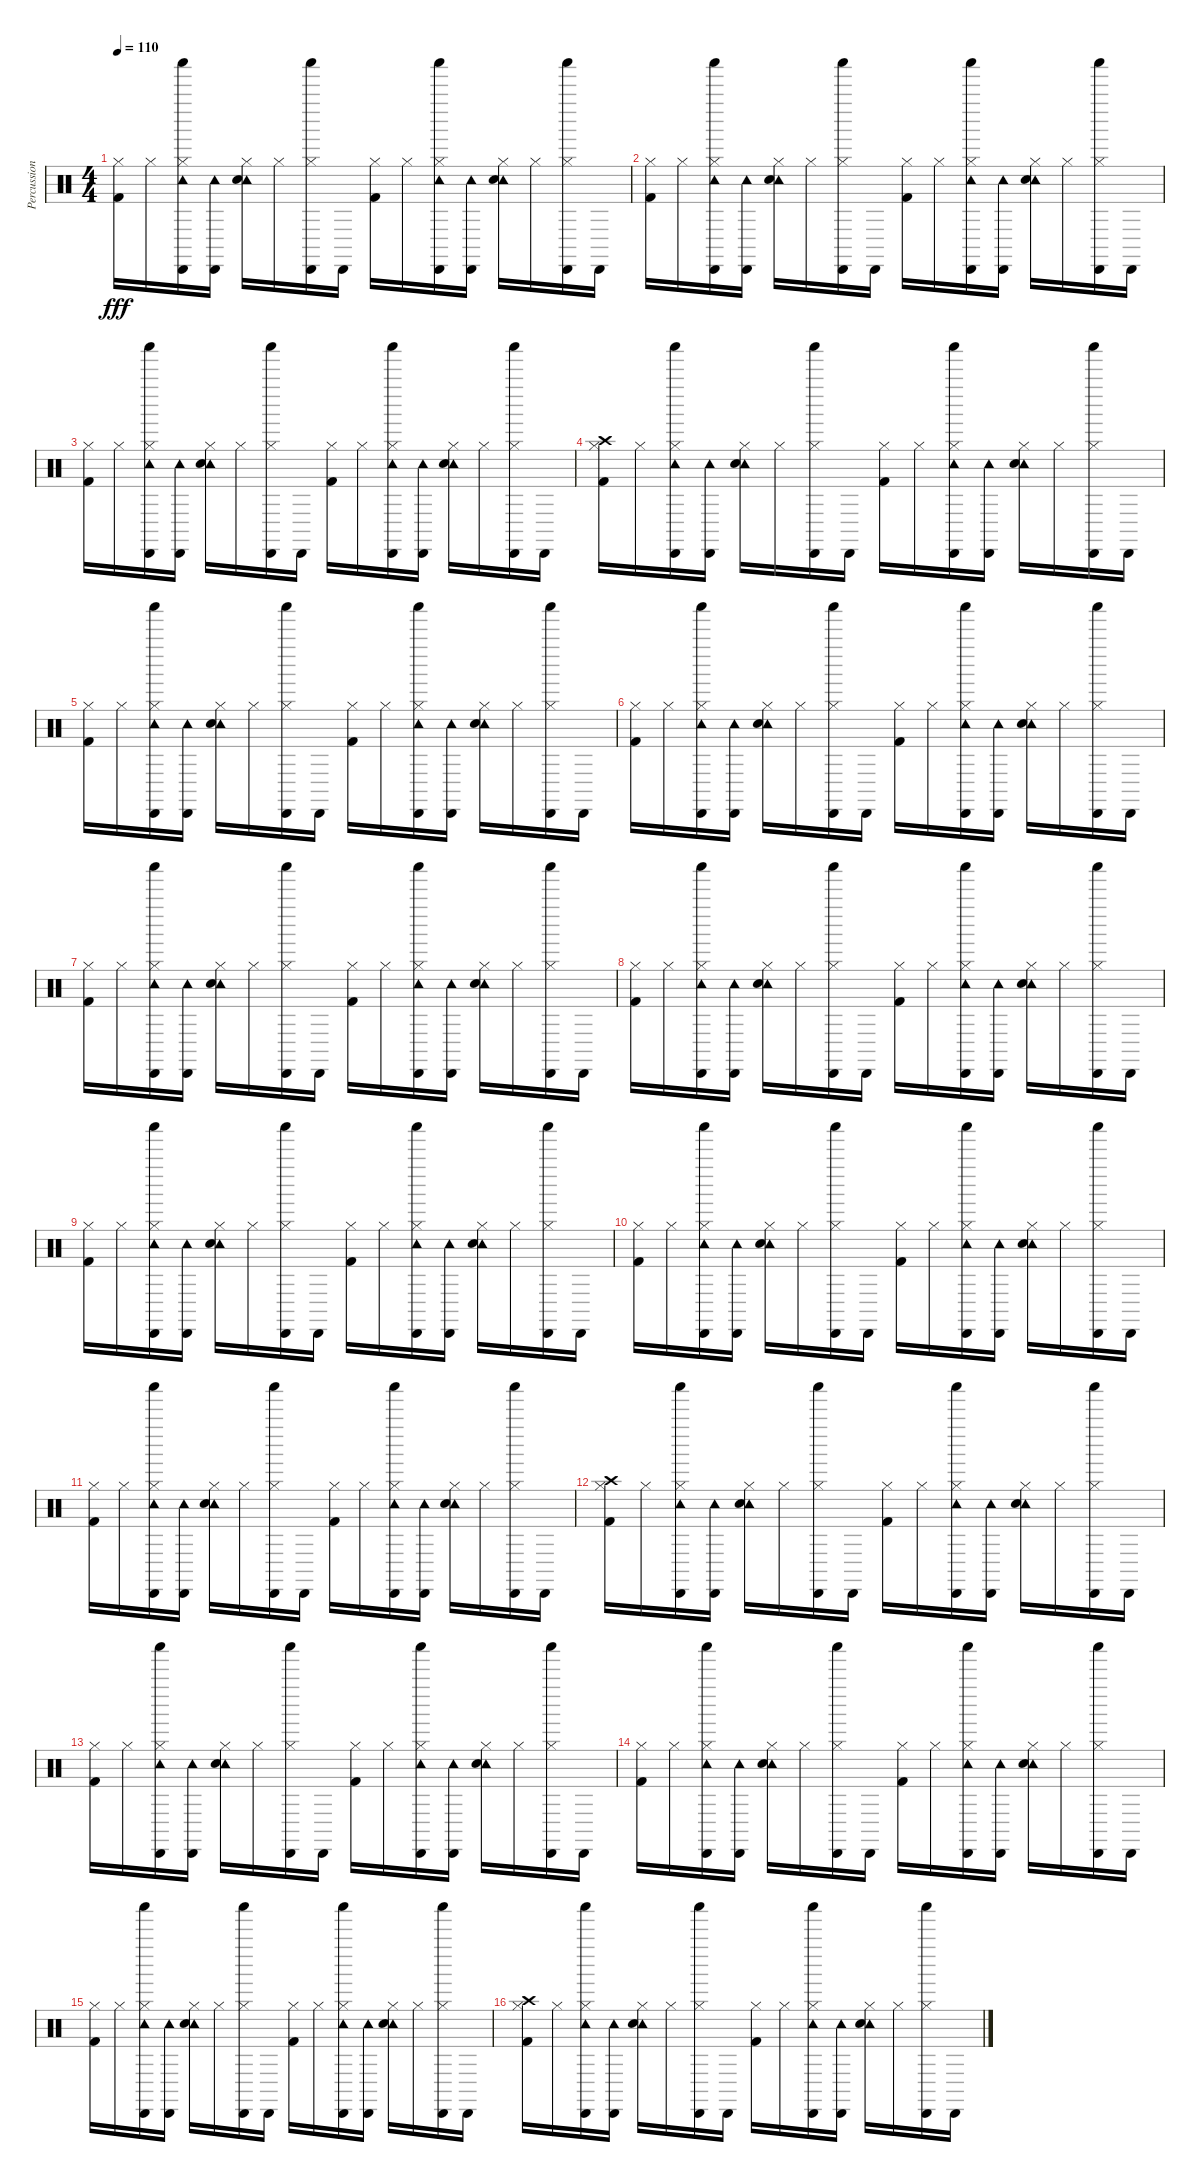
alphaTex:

\track ("Percussions" "Percussion") {instrument percussion}
\staff {score}
\articulation defaults
\ts (4 4)
\tempo 110
\clef neutral
\ks c
("Hi-Hat (closed)" "Kick (hit) 2").16{dy fff} "Hi-Hat (closed)".16 ("Hi-Hat (closed)" "Tambourine (hit)" "Cabasa (hit)" "Shaker (hit)").16 ("Tambourine (hit)" "Cabasa (hit)").16 ("Hi-Hat (closed)" "Tambourine (hit)" "Electric Snare (hit)").16 "Hi-Hat (closed)".16 ("Hi-Hat (closed)" "Cabasa (hit)" "Shaker (hit)").16 "Cabasa (hit)".16 ("Hi-Hat (closed)" "Kick (hit) 2").16 "Hi-Hat (closed)".16 ("Hi-Hat (closed)" "Tambourine (hit)" "Cabasa (hit)" "Shaker (hit)").16 ("Tambourine (hit)" "Cabasa (hit)").16 ("Hi-Hat (closed)" "Tambourine (hit)" "Electric Snare (hit)").16 "Hi-Hat (closed)".16 ("Hi-Hat (closed)" "Cabasa (hit)" "Shaker (hit)").16 "Cabasa (hit)".16 |
("Hi-Hat (closed)" "Kick (hit) 2").16 "Hi-Hat (closed)".16 ("Hi-Hat (closed)" "Tambourine (hit)" "Cabasa (hit)" "Shaker (hit)").16 ("Tambourine (hit)" "Cabasa (hit)").16 ("Hi-Hat (closed)" "Tambourine (hit)" "Electric Snare (hit)").16 "Hi-Hat (closed)".16 ("Hi-Hat (closed)" "Cabasa (hit)" "Shaker (hit)").16 "Cabasa (hit)".16 ("Hi-Hat (closed)" "Kick (hit) 2").16 "Hi-Hat (closed)".16 ("Hi-Hat (closed)" "Tambourine (hit)" "Cabasa (hit)" "Shaker (hit)").16 ("Tambourine (hit)" "Cabasa (hit)").16 ("Hi-Hat (closed)" "Tambourine (hit)" "Electric Snare (hit)").16 "Hi-Hat (closed)".16 ("Hi-Hat (closed)" "Cabasa (hit)" "Shaker (hit)").16 "Cabasa (hit)".16 |
("Hi-Hat (closed)" "Kick (hit) 2").16 "Hi-Hat (closed)".16 ("Hi-Hat (closed)" "Tambourine (hit)" "Cabasa (hit)" "Shaker (hit)").16 ("Tambourine (hit)" "Cabasa (hit)").16 ("Hi-Hat (closed)" "Tambourine (hit)" "Electric Snare (hit)").16 "Hi-Hat (closed)".16 ("Hi-Hat (closed)" "Cabasa (hit)" "Shaker (hit)").16 "Cabasa (hit)".16 ("Hi-Hat (closed)" "Kick (hit) 2").16 "Hi-Hat (closed)".16 ("Hi-Hat (closed)" "Tambourine (hit)" "Cabasa (hit)" "Shaker (hit)").16 ("Tambourine (hit)" "Cabasa (hit)").16 ("Hi-Hat (closed)" "Tambourine (hit)" "Electric Snare (hit)").16 "Hi-Hat (closed)".16 ("Hi-Hat (closed)" "Cabasa (hit)" "Shaker (hit)").16 "Cabasa (hit)".16 |
("Hi-Hat (closed)" "Crash high (hit)" "Kick (hit) 2").16 "Hi-Hat (closed)".16 ("Hi-Hat (closed)" "Tambourine (hit)" "Cabasa (hit)" "Shaker (hit)").16 ("Tambourine (hit)" "Cabasa (hit)").16 ("Hi-Hat (closed)" "Tambourine (hit)" "Electric Snare (hit)").16 "Hi-Hat (closed)".16 ("Hi-Hat (closed)" "Cabasa (hit)" "Shaker (hit)").16 "Cabasa (hit)".16 ("Hi-Hat (closed)" "Kick (hit) 2").16 "Hi-Hat (closed)".16 ("Hi-Hat (closed)" "Tambourine (hit)" "Cabasa (hit)" "Shaker (hit)").16 ("Tambourine (hit)" "Cabasa (hit)").16 ("Hi-Hat (closed)" "Tambourine (hit)" "Electric Snare (hit)").16 "Hi-Hat (closed)".16 ("Hi-Hat (closed)" "Cabasa (hit)" "Shaker (hit)").16 "Cabasa (hit)".16 |
("Hi-Hat (closed)" "Kick (hit) 2").16 "Hi-Hat (closed)".16 ("Hi-Hat (closed)" "Tambourine (hit)" "Cabasa (hit)" "Shaker (hit)").16 ("Tambourine (hit)" "Cabasa (hit)").16 ("Hi-Hat (closed)" "Tambourine (hit)" "Electric Snare (hit)").16 "Hi-Hat (closed)".16 ("Hi-Hat (closed)" "Cabasa (hit)" "Shaker (hit)").16 "Cabasa (hit)".16 ("Hi-Hat (closed)" "Kick (hit) 2").16 "Hi-Hat (closed)".16 ("Hi-Hat (closed)" "Tambourine (hit)" "Cabasa (hit)" "Shaker (hit)").16 ("Tambourine (hit)" "Cabasa (hit)").16 ("Hi-Hat (closed)" "Tambourine (hit)" "Electric Snare (hit)").16 "Hi-Hat (closed)".16 ("Hi-Hat (closed)" "Cabasa (hit)" "Shaker (hit)").16 "Cabasa (hit)".16 |
("Hi-Hat (closed)" "Kick (hit) 2").16 "Hi-Hat (closed)".16 ("Hi-Hat (closed)" "Tambourine (hit)" "Cabasa (hit)" "Shaker (hit)").16 ("Tambourine (hit)" "Cabasa (hit)").16 ("Hi-Hat (closed)" "Tambourine (hit)" "Electric Snare (hit)").16 "Hi-Hat (closed)".16 ("Hi-Hat (closed)" "Cabasa (hit)" "Shaker (hit)").16 "Cabasa (hit)".16 ("Hi-Hat (closed)" "Kick (hit) 2").16 "Hi-Hat (closed)".16 ("Hi-Hat (closed)" "Tambourine (hit)" "Cabasa (hit)" "Shaker (hit)").16 ("Tambourine (hit)" "Cabasa (hit)").16 ("Hi-Hat (closed)" "Tambourine (hit)" "Electric Snare (hit)").16 "Hi-Hat (closed)".16 ("Hi-Hat (closed)" "Cabasa (hit)" "Shaker (hit)").16 "Cabasa (hit)".16 |
("Hi-Hat (closed)" "Kick (hit) 2").16 "Hi-Hat (closed)".16 ("Hi-Hat (closed)" "Tambourine (hit)" "Cabasa (hit)" "Shaker (hit)").16 ("Tambourine (hit)" "Cabasa (hit)").16 ("Hi-Hat (closed)" "Tambourine (hit)" "Electric Snare (hit)").16 "Hi-Hat (closed)".16 ("Hi-Hat (closed)" "Cabasa (hit)" "Shaker (hit)").16 "Cabasa (hit)".16 ("Hi-Hat (closed)" "Kick (hit) 2").16 "Hi-Hat (closed)".16 ("Hi-Hat (closed)" "Tambourine (hit)" "Cabasa (hit)" "Shaker (hit)").16 ("Tambourine (hit)" "Cabasa (hit)").16 ("Hi-Hat (closed)" "Tambourine (hit)" "Electric Snare (hit)").16 "Hi-Hat (closed)".16 ("Hi-Hat (closed)" "Cabasa (hit)" "Shaker (hit)").16 "Cabasa (hit)".16 |
("Hi-Hat (closed)" "Kick (hit) 2").16 "Hi-Hat (closed)".16 ("Hi-Hat (closed)" "Tambourine (hit)" "Cabasa (hit)" "Shaker (hit)").16 ("Tambourine (hit)" "Cabasa (hit)").16 ("Hi-Hat (closed)" "Tambourine (hit)" "Electric Snare (hit)").16 "Hi-Hat (closed)".16 ("Hi-Hat (closed)" "Cabasa (hit)" "Shaker (hit)").16 "Cabasa (hit)".16 ("Hi-Hat (closed)" "Kick (hit) 2").16 "Hi-Hat (closed)".16 ("Hi-Hat (closed)" "Tambourine (hit)" "Cabasa (hit)" "Shaker (hit)").16 ("Tambourine (hit)" "Cabasa (hit)").16 ("Hi-Hat (closed)" "Tambourine (hit)" "Electric Snare (hit)").16 "Hi-Hat (closed)".16 ("Hi-Hat (closed)" "Cabasa (hit)" "Shaker (hit)").16 "Cabasa (hit)".16 |
("Hi-Hat (closed)" "Kick (hit) 2").16 "Hi-Hat (closed)".16 ("Hi-Hat (closed)" "Tambourine (hit)" "Cabasa (hit)" "Shaker (hit)").16 ("Tambourine (hit)" "Cabasa (hit)").16 ("Hi-Hat (closed)" "Tambourine (hit)" "Electric Snare (hit)").16 "Hi-Hat (closed)".16 ("Hi-Hat (closed)" "Cabasa (hit)" "Shaker (hit)").16 "Cabasa (hit)".16 ("Hi-Hat (closed)" "Kick (hit) 2").16 "Hi-Hat (closed)".16 ("Hi-Hat (closed)" "Tambourine (hit)" "Cabasa (hit)" "Shaker (hit)").16 ("Tambourine (hit)" "Cabasa (hit)").16 ("Hi-Hat (closed)" "Tambourine (hit)" "Electric Snare (hit)").16 "Hi-Hat (closed)".16 ("Hi-Hat (closed)" "Cabasa (hit)" "Shaker (hit)").16 "Cabasa (hit)".16 |
("Hi-Hat (closed)" "Kick (hit) 2").16 "Hi-Hat (closed)".16 ("Hi-Hat (closed)" "Tambourine (hit)" "Cabasa (hit)" "Shaker (hit)").16 ("Tambourine (hit)" "Cabasa (hit)").16 ("Hi-Hat (closed)" "Tambourine (hit)" "Electric Snare (hit)").16 "Hi-Hat (closed)".16 ("Hi-Hat (closed)" "Cabasa (hit)" "Shaker (hit)").16 "Cabasa (hit)".16 ("Hi-Hat (closed)" "Kick (hit) 2").16 "Hi-Hat (closed)".16 ("Hi-Hat (closed)" "Tambourine (hit)" "Cabasa (hit)" "Shaker (hit)").16 ("Tambourine (hit)" "Cabasa (hit)").16 ("Hi-Hat (closed)" "Tambourine (hit)" "Electric Snare (hit)").16 "Hi-Hat (closed)".16 ("Hi-Hat (closed)" "Cabasa (hit)" "Shaker (hit)").16 "Cabasa (hit)".16 |
("Hi-Hat (closed)" "Kick (hit) 2").16 "Hi-Hat (closed)".16 ("Hi-Hat (closed)" "Tambourine (hit)" "Cabasa (hit)" "Shaker (hit)").16 ("Tambourine (hit)" "Cabasa (hit)").16 ("Hi-Hat (closed)" "Tambourine (hit)" "Electric Snare (hit)").16 "Hi-Hat (closed)".16 ("Hi-Hat (closed)" "Cabasa (hit)" "Shaker (hit)").16 "Cabasa (hit)".16 ("Hi-Hat (closed)" "Kick (hit) 2").16 "Hi-Hat (closed)".16 ("Hi-Hat (closed)" "Tambourine (hit)" "Cabasa (hit)" "Shaker (hit)").16 ("Tambourine (hit)" "Cabasa (hit)").16 ("Hi-Hat (closed)" "Tambourine (hit)" "Electric Snare (hit)").16 "Hi-Hat (closed)".16 ("Hi-Hat (closed)" "Cabasa (hit)" "Shaker (hit)").16 "Cabasa (hit)".16 |
("Hi-Hat (closed)" "Crash high (hit)" "Kick (hit) 2").16 "Hi-Hat (closed)".16 ("Hi-Hat (closed)" "Tambourine (hit)" "Cabasa (hit)" "Shaker (hit)").16 ("Tambourine (hit)" "Cabasa (hit)").16 ("Hi-Hat (closed)" "Tambourine (hit)" "Electric Snare (hit)").16 "Hi-Hat (closed)".16 ("Hi-Hat (closed)" "Cabasa (hit)" "Shaker (hit)").16 "Cabasa (hit)".16 ("Hi-Hat (closed)" "Kick (hit) 2").16 "Hi-Hat (closed)".16 ("Hi-Hat (closed)" "Tambourine (hit)" "Cabasa (hit)" "Shaker (hit)").16 ("Tambourine (hit)" "Cabasa (hit)").16 ("Hi-Hat (closed)" "Tambourine (hit)" "Electric Snare (hit)").16 "Hi-Hat (closed)".16 ("Hi-Hat (closed)" "Cabasa (hit)" "Shaker (hit)").16 "Cabasa (hit)".16 |
("Hi-Hat (closed)" "Kick (hit) 2").16 "Hi-Hat (closed)".16 ("Hi-Hat (closed)" "Tambourine (hit)" "Cabasa (hit)" "Shaker (hit)").16 ("Tambourine (hit)" "Cabasa (hit)").16 ("Hi-Hat (closed)" "Tambourine (hit)" "Electric Snare (hit)").16 "Hi-Hat (closed)".16 ("Hi-Hat (closed)" "Cabasa (hit)" "Shaker (hit)").16 "Cabasa (hit)".16 ("Hi-Hat (closed)" "Kick (hit) 2").16 "Hi-Hat (closed)".16 ("Hi-Hat (closed)" "Tambourine (hit)" "Cabasa (hit)" "Shaker (hit)").16 ("Tambourine (hit)" "Cabasa (hit)").16 ("Hi-Hat (closed)" "Tambourine (hit)" "Electric Snare (hit)").16 "Hi-Hat (closed)".16 ("Hi-Hat (closed)" "Cabasa (hit)" "Shaker (hit)").16 "Cabasa (hit)".16 |
("Hi-Hat (closed)" "Kick (hit) 2").16 "Hi-Hat (closed)".16 ("Hi-Hat (closed)" "Tambourine (hit)" "Cabasa (hit)" "Shaker (hit)").16 ("Tambourine (hit)" "Cabasa (hit)").16 ("Hi-Hat (closed)" "Tambourine (hit)" "Electric Snare (hit)").16 "Hi-Hat (closed)".16 ("Hi-Hat (closed)" "Cabasa (hit)" "Shaker (hit)").16 "Cabasa (hit)".16 ("Hi-Hat (closed)" "Kick (hit) 2").16 "Hi-Hat (closed)".16 ("Hi-Hat (closed)" "Tambourine (hit)" "Cabasa (hit)" "Shaker (hit)").16 ("Tambourine (hit)" "Cabasa (hit)").16 ("Hi-Hat (closed)" "Tambourine (hit)" "Electric Snare (hit)").16 "Hi-Hat (closed)".16 ("Hi-Hat (closed)" "Cabasa (hit)" "Shaker (hit)").16 "Cabasa (hit)".16 |
("Hi-Hat (closed)" "Kick (hit) 2").16 "Hi-Hat (closed)".16 ("Hi-Hat (closed)" "Tambourine (hit)" "Cabasa (hit)" "Shaker (hit)").16 ("Tambourine (hit)" "Cabasa (hit)").16 ("Hi-Hat (closed)" "Tambourine (hit)" "Electric Snare (hit)").16 "Hi-Hat (closed)".16 ("Hi-Hat (closed)" "Cabasa (hit)" "Shaker (hit)").16 "Cabasa (hit)".16 ("Hi-Hat (closed)" "Kick (hit) 2").16 "Hi-Hat (closed)".16 ("Hi-Hat (closed)" "Tambourine (hit)" "Cabasa (hit)" "Shaker (hit)").16 ("Tambourine (hit)" "Cabasa (hit)").16 ("Hi-Hat (closed)" "Tambourine (hit)" "Electric Snare (hit)").16 "Hi-Hat (closed)".16 ("Hi-Hat (closed)" "Cabasa (hit)" "Shaker (hit)").16 "Cabasa (hit)".16 |
("Hi-Hat (closed)" "Crash high (hit)" "Kick (hit) 2").16 "Hi-Hat (closed)".16 ("Hi-Hat (closed)" "Tambourine (hit)" "Cabasa (hit)" "Shaker (hit)").16 ("Tambourine (hit)" "Cabasa (hit)").16 ("Hi-Hat (closed)" "Tambourine (hit)" "Electric Snare (hit)").16 "Hi-Hat (closed)".16 ("Hi-Hat (closed)" "Cabasa (hit)" "Shaker (hit)").16 "Cabasa (hit)".16 ("Hi-Hat (closed)" "Kick (hit) 2").16 "Hi-Hat (closed)".16 ("Hi-Hat (closed)" "Tambourine (hit)" "Cabasa (hit)" "Shaker (hit)").16 ("Tambourine (hit)" "Cabasa (hit)").16 ("Hi-Hat (closed)" "Tambourine (hit)" "Electric Snare (hit)").16 "Hi-Hat (closed)".16 ("Hi-Hat (closed)" "Cabasa (hit)" "Shaker (hit)").16 "Cabasa (hit)".16
